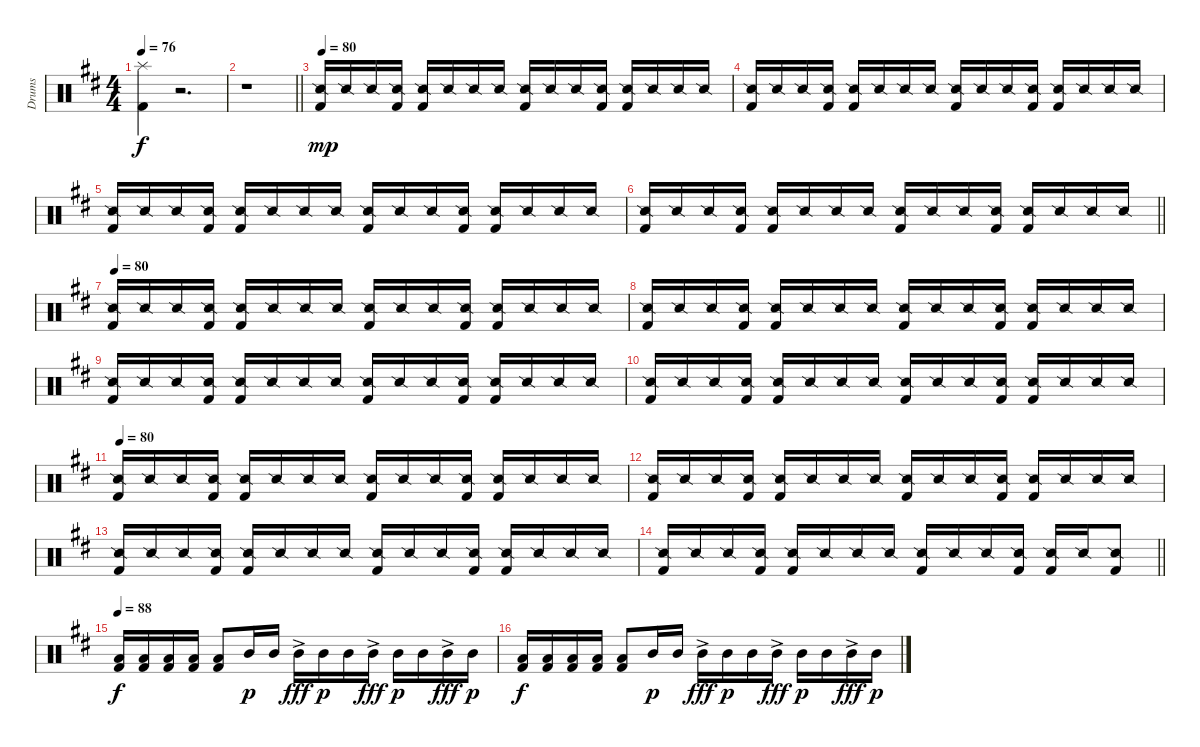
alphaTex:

\track ("Drums" "Drums") {instrument percussion}
\staff {score}
\articulation defaults
\ts (4 4)
\tempo 76
\clef neutral
\ks bminor
("Splash (hit)" "Kick (hit) 2").4{dy f} r.2{d} |
\barLineRight lightlight
r.1 |
\tempo 80
("Snare (side stick) 2" "Kick (hit) 2").16{dy mp} "Snare (side stick) 2".16 "Snare (side stick) 2".16 ("Snare (side stick) 2" "Kick (hit) 2").16 ("Snare (side stick) 2" "Kick (hit) 2").16 "Snare (side stick) 2".16 "Snare (side stick) 2".16 "Snare (side stick) 2".16 ("Snare (side stick) 2" "Kick (hit) 2").16 "Snare (side stick) 2".16 "Snare (side stick) 2".16 ("Snare (side stick) 2" "Kick (hit) 2").16 ("Snare (side stick) 2" "Kick (hit) 2").16 "Snare (side stick) 2".16 "Snare (side stick) 2".16 "Snare (side stick) 2".16 |
("Snare (side stick) 2" "Kick (hit) 2").16 "Snare (side stick) 2".16 "Snare (side stick) 2".16 ("Snare (side stick) 2" "Kick (hit) 2").16 ("Snare (side stick) 2" "Kick (hit) 2").16 "Snare (side stick) 2".16 "Snare (side stick) 2".16 "Snare (side stick) 2".16 ("Snare (side stick) 2" "Kick (hit) 2").16 "Snare (side stick) 2".16 "Snare (side stick) 2".16 ("Snare (side stick) 2" "Kick (hit) 2").16 ("Snare (side stick) 2" "Kick (hit) 2").16 "Snare (side stick) 2".16 "Snare (side stick) 2".16 "Snare (side stick) 2".16 |
("Snare (side stick) 2" "Kick (hit) 2").16 "Snare (side stick) 2".16 "Snare (side stick) 2".16 ("Snare (side stick) 2" "Kick (hit) 2").16 ("Snare (side stick) 2" "Kick (hit) 2").16 "Snare (side stick) 2".16 "Snare (side stick) 2".16 "Snare (side stick) 2".16 ("Snare (side stick) 2" "Kick (hit) 2").16 "Snare (side stick) 2".16 "Snare (side stick) 2".16 ("Snare (side stick) 2" "Kick (hit) 2").16 ("Snare (side stick) 2" "Kick (hit) 2").16 "Snare (side stick) 2".16 "Snare (side stick) 2".16 "Snare (side stick) 2".16 |
\barLineRight lightlight
("Snare (side stick) 2" "Kick (hit) 2").16 "Snare (side stick) 2".16 "Snare (side stick) 2".16 ("Snare (side stick) 2" "Kick (hit) 2").16 ("Snare (side stick) 2" "Kick (hit) 2").16 "Snare (side stick) 2".16 "Snare (side stick) 2".16 "Snare (side stick) 2".16 ("Snare (side stick) 2" "Kick (hit) 2").16 "Snare (side stick) 2".16 "Snare (side stick) 2".16 ("Snare (side stick) 2" "Kick (hit) 2").16 ("Snare (side stick) 2" "Kick (hit) 2").16 "Snare (side stick) 2".16 "Snare (side stick) 2".16 "Snare (side stick) 2".16 |
\tempo 80
("Snare (side stick) 2" "Kick (hit) 2").16 "Snare (side stick) 2".16 "Snare (side stick) 2".16 ("Snare (side stick) 2" "Kick (hit) 2").16 ("Snare (side stick) 2" "Kick (hit) 2").16 "Snare (side stick) 2".16 "Snare (side stick) 2".16 "Snare (side stick) 2".16 ("Snare (side stick) 2" "Kick (hit) 2").16 "Snare (side stick) 2".16 "Snare (side stick) 2".16 ("Snare (side stick) 2" "Kick (hit) 2").16 ("Snare (side stick) 2" "Kick (hit) 2").16 "Snare (side stick) 2".16 "Snare (side stick) 2".16 "Snare (side stick) 2".16 |
("Snare (side stick) 2" "Kick (hit) 2").16 "Snare (side stick) 2".16 "Snare (side stick) 2".16 ("Snare (side stick) 2" "Kick (hit) 2").16 ("Snare (side stick) 2" "Kick (hit) 2").16 "Snare (side stick) 2".16 "Snare (side stick) 2".16 "Snare (side stick) 2".16 ("Snare (side stick) 2" "Kick (hit) 2").16 "Snare (side stick) 2".16 "Snare (side stick) 2".16 ("Snare (side stick) 2" "Kick (hit) 2").16 ("Snare (side stick) 2" "Kick (hit) 2").16 "Snare (side stick) 2".16 "Snare (side stick) 2".16 "Snare (side stick) 2".16 |
("Snare (side stick) 2" "Kick (hit) 2").16 "Snare (side stick) 2".16 "Snare (side stick) 2".16 ("Snare (side stick) 2" "Kick (hit) 2").16 ("Snare (side stick) 2" "Kick (hit) 2").16 "Snare (side stick) 2".16 "Snare (side stick) 2".16 "Snare (side stick) 2".16 ("Snare (side stick) 2" "Kick (hit) 2").16 "Snare (side stick) 2".16 "Snare (side stick) 2".16 ("Snare (side stick) 2" "Kick (hit) 2").16 ("Snare (side stick) 2" "Kick (hit) 2").16 "Snare (side stick) 2".16 "Snare (side stick) 2".16 "Snare (side stick) 2".16 |
("Snare (side stick) 2" "Kick (hit) 2").16 "Snare (side stick) 2".16 "Snare (side stick) 2".16 ("Snare (side stick) 2" "Kick (hit) 2").16 ("Snare (side stick) 2" "Kick (hit) 2").16 "Snare (side stick) 2".16 "Snare (side stick) 2".16 "Snare (side stick) 2".16 ("Snare (side stick) 2" "Kick (hit) 2").16 "Snare (side stick) 2".16 "Snare (side stick) 2".16 ("Snare (side stick) 2" "Kick (hit) 2").16 ("Snare (side stick) 2" "Kick (hit) 2").16 "Snare (side stick) 2".16 "Snare (side stick) 2".16 "Snare (side stick) 2".16 |
\tempo 80
("Snare (side stick) 2" "Kick (hit) 2").16 "Snare (side stick) 2".16 "Snare (side stick) 2".16 ("Snare (side stick) 2" "Kick (hit) 2").16 ("Snare (side stick) 2" "Kick (hit) 2").16 "Snare (side stick) 2".16 "Snare (side stick) 2".16 "Snare (side stick) 2".16 ("Snare (side stick) 2" "Kick (hit) 2").16 "Snare (side stick) 2".16 "Snare (side stick) 2".16 ("Snare (side stick) 2" "Kick (hit) 2").16 ("Snare (side stick) 2" "Kick (hit) 2").16 "Snare (side stick) 2".16 "Snare (side stick) 2".16 "Snare (side stick) 2".16 |
("Snare (side stick) 2" "Kick (hit) 2").16 "Snare (side stick) 2".16 "Snare (side stick) 2".16 ("Snare (side stick) 2" "Kick (hit) 2").16 ("Snare (side stick) 2" "Kick (hit) 2").16 "Snare (side stick) 2".16 "Snare (side stick) 2".16 "Snare (side stick) 2".16 ("Snare (side stick) 2" "Kick (hit) 2").16 "Snare (side stick) 2".16 "Snare (side stick) 2".16 ("Snare (side stick) 2" "Kick (hit) 2").16 ("Snare (side stick) 2" "Kick (hit) 2").16 "Snare (side stick) 2".16 "Snare (side stick) 2".16 "Snare (side stick) 2".16 |
("Snare (side stick) 2" "Kick (hit) 2").16 "Snare (side stick) 2".16 "Snare (side stick) 2".16 ("Snare (side stick) 2" "Kick (hit) 2").16 ("Snare (side stick) 2" "Kick (hit) 2").16 "Snare (side stick) 2".16 "Snare (side stick) 2".16 "Snare (side stick) 2".16 ("Snare (side stick) 2" "Kick (hit) 2").16 "Snare (side stick) 2".16 "Snare (side stick) 2".16 ("Snare (side stick) 2" "Kick (hit) 2").16 ("Snare (side stick) 2" "Kick (hit) 2").16 "Snare (side stick) 2".16 "Snare (side stick) 2".16 "Snare (side stick) 2".16 |
\barLineRight lightlight
("Snare (side stick) 2" "Kick (hit) 2").16 "Snare (side stick) 2".16 "Snare (side stick) 2".16 ("Snare (side stick) 2" "Kick (hit) 2").16 ("Snare (side stick) 2" "Kick (hit) 2").16 "Snare (side stick) 2".16 "Snare (side stick) 2".16 "Snare (side stick) 2".16 ("Snare (side stick) 2" "Kick (hit) 2").16 "Snare (side stick) 2".16 "Snare (side stick) 2".16 ("Snare (side stick) 2" "Kick (hit) 2").16 ("Snare (side stick) 2" "Kick (hit) 2").16 "Snare (side stick) 2".16 ("Snare (side stick) 2" "Kick (hit) 2").8 |
\tempo 88
("Low Tom (hit)" "Kick (hit) 2").16{dy f} ("Low Tom (hit)" "Kick (hit) 2").16 ("Low Tom (hit)" "Kick (hit) 2").16 ("Low Tom (hit)" "Kick (hit) 2").16 ("Low Tom (hit)" "Kick (hit) 2").8 "Mid Tom (hit)".16{dy p} "Mid Tom (hit)".16 "Mid Tom (hit)"{ac}.16{dy fff} "Mid Tom (hit)".16{dy p} "Mid Tom (hit)".16 "Mid Tom (hit)"{ac}.16{dy fff} "Mid Tom (hit)".16{dy p} "Mid Tom (hit)".16 "Mid Tom (hit)"{ac}.16{dy fff} "Mid Tom (hit)".16{dy p} |
("Low Tom (hit)" "Kick (hit) 2").16{dy f} ("Low Tom (hit)" "Kick (hit) 2").16 ("Low Tom (hit)" "Kick (hit) 2").16 ("Low Tom (hit)" "Kick (hit) 2").16 ("Low Tom (hit)" "Kick (hit) 2").8 "Mid Tom (hit)".16{dy p} "Mid Tom (hit)".16 "Mid Tom (hit)"{ac}.16{dy fff} "Mid Tom (hit)".16{dy p} "Mid Tom (hit)".16 "Mid Tom (hit)"{ac}.16{dy fff} "Mid Tom (hit)".16{dy p} "Mid Tom (hit)".16 "Mid Tom (hit)"{ac}.16{dy fff} "Mid Tom (hit)".16{dy p}
